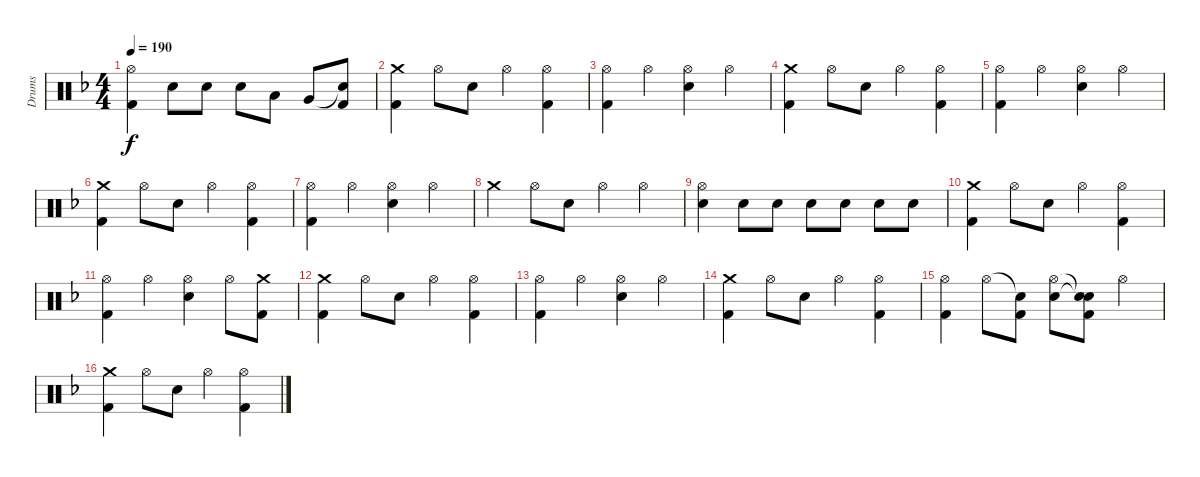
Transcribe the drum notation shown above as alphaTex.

\track ("Drums" "Drums") {instrument percussion}
\staff {score}
\articulation defaults
\ts (4 4)
\tempo 190
\clef neutral
\ks dminor
("Hi-Hat (open)" "Kick (hit) 2").4{dy f} "Electric Snare (hit)".8 "Electric Snare (hit)".8 "Electric Snare (hit)".8 "Low Tom (hit)".8 "Very Low Tom (hit)".8 ("Snare (hit)"{t} "Kick (hit) 2").8 |
("Crash medium (hit)" "Kick (hit) 2").4 "Hi-Hat (open)".8 "Electric Snare (hit)".8 "Hi-Hat (open)".4 ("Hi-Hat (open)" "Kick (hit) 2").4 |
("Hi-Hat (open)" "Kick (hit) 2").4 "Hi-Hat (open)".4 ("Hi-Hat (open)" "Electric Snare (hit)").4 "Hi-Hat (open)".4 |
("Crash medium (hit)" "Kick (hit) 2").4 "Hi-Hat (open)".8 "Electric Snare (hit)".8 "Hi-Hat (open)".4 ("Hi-Hat (open)" "Kick (hit) 2").4 |
("Hi-Hat (open)" "Kick (hit) 2").4 "Hi-Hat (open)".4 ("Hi-Hat (open)" "Electric Snare (hit)").4 "Hi-Hat (open)".4 |
("Crash medium (hit)" "Kick (hit) 2").4 "Hi-Hat (open)".8 "Electric Snare (hit)".8 "Hi-Hat (open)".4 ("Hi-Hat (open)" "Kick (hit) 2").4 |
("Hi-Hat (open)" "Kick (hit) 2").4 "Hi-Hat (open)".4 ("Hi-Hat (open)" "Electric Snare (hit)").4 "Hi-Hat (open)".4 |
"Crash medium (hit)".4 "Hi-Hat (open)".8 "Electric Snare (hit)".8 "Hi-Hat (open)".4 "Hi-Hat (open)".4 |
("Hi-Hat (open)" "Electric Snare (hit)").4 "Electric Snare (hit)".8 "Electric Snare (hit)".8 "Electric Snare (hit)".8 "Electric Snare (hit)".8 "Electric Snare (hit)".8 "Electric Snare (hit)".8 |
("Crash medium (hit)" "Kick (hit) 2").4 "Hi-Hat (open)".8 "Electric Snare (hit)".8 "Hi-Hat (open)".4 ("Hi-Hat (open)" "Kick (hit) 2").4 |
("Hi-Hat (open)" "Kick (hit) 2").4 "Hi-Hat (open)".4 ("Hi-Hat (open)" "Electric Snare (hit)").4 "Hi-Hat (open)".8 ("Crash medium (hit)" "Kick (hit) 2").8 |
("Crash medium (hit)" "Kick (hit) 2").4 "Hi-Hat (open)".8 "Electric Snare (hit)".8 "Hi-Hat (open)".4 ("Hi-Hat (open)" "Kick (hit) 2").4 |
("Hi-Hat (open)" "Kick (hit) 2").4 "Hi-Hat (open)".4 ("Hi-Hat (open)" "Electric Snare (hit)").4 "Hi-Hat (open)".4 |
("Crash medium (hit)" "Kick (hit) 2").4 "Hi-Hat (open)".8 "Electric Snare (hit)".8 "Hi-Hat (open)".4 ("Hi-Hat (open)" "Kick (hit) 2").4 |
("Hi-Hat (open)" "Kick (hit) 2").4 "Hi-Hat (open)".8 ("Snare (hit)"{t} "Kick (hit) 2").8 ("Hi-Hat (open)" "Electric Snare (hit)").8 ("Snare (hit)"{t} "Snare (hit)"{t} "Kick (hit) 2").8 "Hi-Hat (open)".4 |
("Crash medium (hit)" "Kick (hit) 2").4 "Hi-Hat (open)".8 "Electric Snare (hit)".8 "Hi-Hat (open)".4 ("Hi-Hat (open)" "Kick (hit) 2").4
